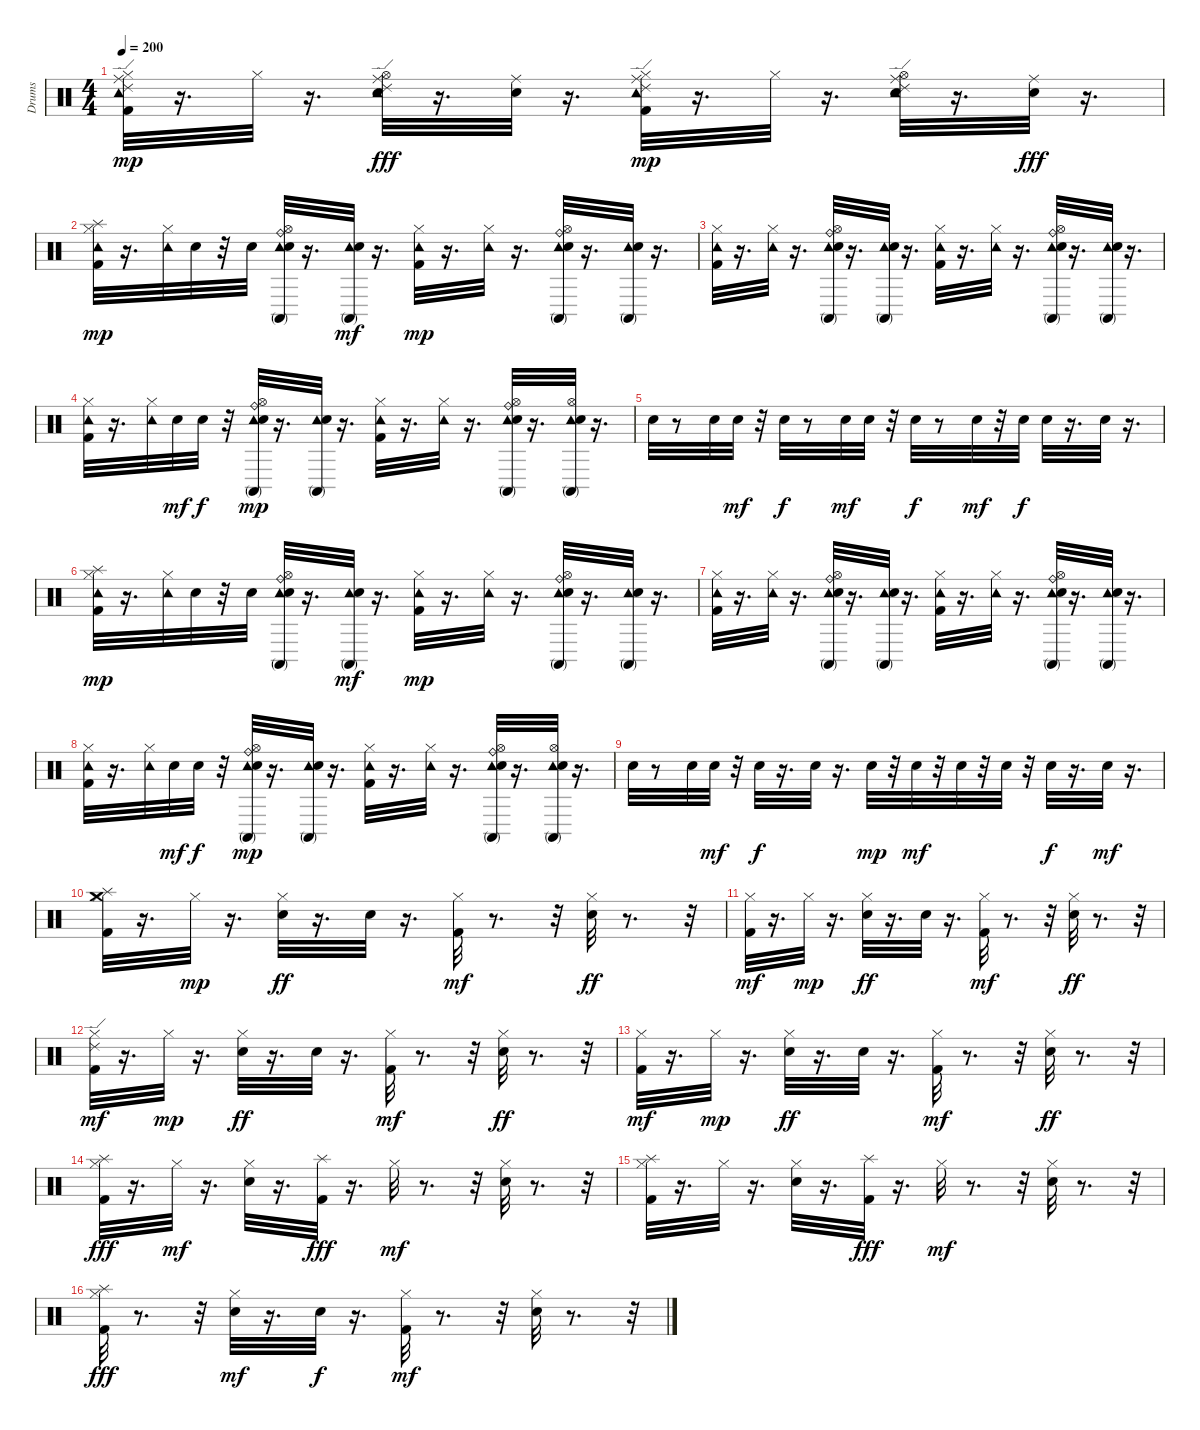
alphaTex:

\track ("Drums" "Drums") {instrument percussion}
\staff {score}
\articulation defaults
\ts (4 4)
\tempo 200
\clef neutral
\ks c
("Ride (middle)" "Tambourine (hit)" "Hi-Hat (closed)" "Kick (hit) 2" "Ride (edge) 2").32{dy mp} r.16{d} "Hi-Hat (closed)".32 r.16{d} ("Ride (middle)" "Ride (edge) 2" "Hi-Hat (open)" "Electric Snare (hit)" "Tambourine (hit)").32{dy fff} r.16{d} ("Ride (middle)" "Electric Snare (hit)").32 r.16{d} ("Ride (middle)" "Tambourine (hit)" "Kick (hit) 2" "Hi-Hat (closed)" "Ride (edge) 2").32{dy mp} r.16{d} "Hi-Hat (closed)".32 r.16{d} ("Ride (middle)" "Tambourine (hit)" "Hi-Hat (open)" "Electric Snare (hit)" "Ride (edge) 2").32 r.16{d} ("Electric Snare (hit)" "Ride (middle)").32{dy fff} r.16{d} |
("Splash (hit)" "Kick (hit) 2" "Hi-Hat (closed)" "Tambourine (hit)").32{dy mp} r.16{d} ("Tambourine (hit)" "Hi-Hat (closed)").32 "Electric Snare (hit)".32 r.32 "Electric Snare (hit)".32 ("Tambourine (hit)" "Hi-Hat (open)" "Ride (bell)" "Electric Snare (hit)" "Conga high (mute)").32 r.16{d} ("Tambourine (hit)" "Conga high (mute)" "Electric Snare (hit)").32{dy mf} r.16{d} ("Tambourine (hit)" "Hi-Hat (closed)" "Kick (hit) 2").32{dy mp} r.16{d} ("Tambourine (hit)" "Hi-Hat (closed)").32 r.16{d} ("Tambourine (hit)" "Ride (bell)" "Hi-Hat (open)" "Conga high (mute)" "Electric Snare (hit)").32 r.16{d} ("Tambourine (hit)" "Conga high (mute)" "Electric Snare (hit)").32 r.16{d} |
("Tambourine (hit)" "Hi-Hat (closed)" "Kick (hit) 2").32 r.16{d} ("Tambourine (hit)" "Hi-Hat (closed)").32 r.16{d} ("Tambourine (hit)" "Ride (bell)" "Hi-Hat (open)" "Conga high (mute)" "Electric Snare (hit)").32 r.16{d} ("Tambourine (hit)" "Conga high (mute)" "Electric Snare (hit)").32 r.16{d} ("Tambourine (hit)" "Hi-Hat (closed)" "Kick (hit) 2").32 r.16{d} ("Tambourine (hit)" "Hi-Hat (closed)").32 r.16{d} ("Tambourine (hit)" "Ride (bell)" "Hi-Hat (open)" "Conga high (mute)" "Electric Snare (hit)").32 r.16{d} ("Tambourine (hit)" "Conga high (mute)" "Electric Snare (hit)").32 r.16{d} |
("Tambourine (hit)" "Hi-Hat (closed)" "Kick (hit) 2").32 r.16{d} ("Tambourine (hit)" "Hi-Hat (closed)").32 "Electric Snare (hit)".32{dy mf} "Electric Snare (hit)".32{dy f} r.32 ("Tambourine (hit)" "Hi-Hat (open)" "Ride (bell)" "Conga high (mute)" "Electric Snare (hit)").32{dy mp} r.16{d} ("Tambourine (hit)" "Conga high (mute)" "Electric Snare (hit)").32 r.16{d} ("Tambourine (hit)" "Hi-Hat (closed)" "Kick (hit) 2").32 r.16{d} ("Tambourine (hit)" "Hi-Hat (closed)").32 r.16{d} ("Tambourine (hit)" "Hi-Hat (open)" "Ride (bell)" "Conga high (mute)" "Electric Snare (hit)").32 r.16{d} ("Tambourine (hit)" "Conga high (mute)" "Electric Snare (hit)" "Hi-Hat (open)").32 r.16{d} |
"Electric Snare (hit)".32 r.8 "Electric Snare (hit)".32 "Electric Snare (hit)".32{dy mf} r.32 "Electric Snare (hit)".32{dy f} r.8 "Electric Snare (hit)".32{dy mf} "Electric Snare (hit)".32 r.32 "Electric Snare (hit)".32{dy f} r.8 "Electric Snare (hit)".32{dy mf} r.32 "Electric Snare (hit)".32{dy f} "Electric Snare (hit)".32 r.16{d} "Electric Snare (hit)".32 r.16{d} |
("Splash (hit)" "Kick (hit) 2" "Hi-Hat (closed)" "Tambourine (hit)").32{dy mp} r.16{d} ("Tambourine (hit)" "Hi-Hat (closed)").32 "Electric Snare (hit)".32 r.32 "Electric Snare (hit)".32 ("Tambourine (hit)" "Hi-Hat (open)" "Ride (bell)" "Electric Snare (hit)" "Conga high (mute)").32 r.16{d} ("Tambourine (hit)" "Conga high (mute)" "Electric Snare (hit)").32{dy mf} r.16{d} ("Tambourine (hit)" "Hi-Hat (closed)" "Kick (hit) 2").32{dy mp} r.16{d} ("Tambourine (hit)" "Hi-Hat (closed)").32 r.16{d} ("Tambourine (hit)" "Ride (bell)" "Hi-Hat (open)" "Conga high (mute)" "Electric Snare (hit)").32 r.16{d} ("Tambourine (hit)" "Conga high (mute)" "Electric Snare (hit)").32 r.16{d} |
("Tambourine (hit)" "Hi-Hat (closed)" "Kick (hit) 2").32 r.16{d} ("Tambourine (hit)" "Hi-Hat (closed)").32 r.16{d} ("Tambourine (hit)" "Ride (bell)" "Hi-Hat (open)" "Conga high (mute)" "Electric Snare (hit)").32 r.16{d} ("Tambourine (hit)" "Conga high (mute)" "Electric Snare (hit)").32 r.16{d} ("Tambourine (hit)" "Hi-Hat (closed)" "Kick (hit) 2").32 r.16{d} ("Tambourine (hit)" "Hi-Hat (closed)").32 r.16{d} ("Tambourine (hit)" "Ride (bell)" "Hi-Hat (open)" "Conga high (mute)" "Electric Snare (hit)").32 r.16{d} ("Tambourine (hit)" "Conga high (mute)" "Electric Snare (hit)").32 r.16{d} |
("Tambourine (hit)" "Hi-Hat (closed)" "Kick (hit) 2").32 r.16{d} ("Tambourine (hit)" "Hi-Hat (closed)").32 "Electric Snare (hit)".32{dy mf} "Electric Snare (hit)".32{dy f} r.32 ("Tambourine (hit)" "Hi-Hat (open)" "Ride (bell)" "Conga high (mute)" "Electric Snare (hit)").32{dy mp} r.16{d} ("Tambourine (hit)" "Conga high (mute)" "Electric Snare (hit)").32 r.16{d} ("Tambourine (hit)" "Hi-Hat (closed)" "Kick (hit) 2").32 r.16{d} ("Tambourine (hit)" "Hi-Hat (closed)").32 r.16{d} ("Tambourine (hit)" "Hi-Hat (open)" "Ride (bell)" "Conga high (mute)" "Electric Snare (hit)").32 r.16{d} ("Tambourine (hit)" "Conga high (mute)" "Electric Snare (hit)" "Hi-Hat (open)").32 r.16{d} |
"Electric Snare (hit)".32 r.8 "Electric Snare (hit)".32 "Electric Snare (hit)".32{dy mf} r.32 "Electric Snare (hit)".32{dy f} r.16{d} "Electric Snare (hit)".32 r.16{d} "Electric Snare (hit)".32{dy mp} r.32 "Electric Snare (hit)".32{dy mf} r.32 "Electric Snare (hit)".32 r.32 "Electric Snare (hit)".32 r.32 "Electric Snare (hit)".32{dy f} r.16{d} "Electric Snare (hit)".32{dy mf} r.16{d} |
("Hi-Hat (closed)" "Splash (hit)" "Crash medium (hit)" "Kick (hit) 2").32 r.16{d} "Hi-Hat (closed)".32{dy mp} r.16{d} ("Hi-Hat (closed)" "Electric Snare (hit)").32{dy ff} r.16{d} "Electric Snare (hit)".32 r.16{d} ("Hi-Hat (closed)" "Kick (hit) 2").32{dy mf} r.8{d} r.32 ("Hi-Hat (closed)" "Electric Snare (hit)").32{dy ff} r.8{d} r.32 |
("Hi-Hat (closed)" "Kick (hit) 2").32{dy mf} r.16{d} "Hi-Hat (closed)".32{dy mp} r.16{d} ("Hi-Hat (closed)" "Electric Snare (hit)").32{dy ff} r.16{d} "Electric Snare (hit)".32 r.16{d} ("Hi-Hat (closed)" "Kick (hit) 2").32{dy mf} r.8{d} r.32 ("Hi-Hat (closed)" "Electric Snare (hit)").32{dy ff} r.8{d} r.32 |
("Ride (edge) 2" "Hi-Hat (closed)" "Kick (hit) 2").32{dy mf} r.16{d} "Hi-Hat (closed)".32{dy mp} r.16{d} ("Hi-Hat (closed)" "Electric Snare (hit)").32{dy ff} r.16{d} "Electric Snare (hit)".32 r.16{d} ("Hi-Hat (closed)" "Kick (hit) 2").32{dy mf} r.8{d} r.32 ("Hi-Hat (closed)" "Electric Snare (hit)").32{dy ff} r.8{d} r.32 |
("Hi-Hat (closed)" "Kick (hit) 2").32{dy mf} r.16{d} "Hi-Hat (closed)".32{dy mp} r.16{d} ("Hi-Hat (closed)" "Electric Snare (hit)").32{dy ff} r.16{d} "Electric Snare (hit)".32 r.16{d} ("Hi-Hat (closed)" "Kick (hit) 2").32{dy mf} r.8{d} r.32 ("Hi-Hat (closed)" "Electric Snare (hit)").32{dy ff} r.8{d} r.32 |
("Hi-Hat (closed)" "Kick (hit) 2" "Splash (hit)").32{dy fff} r.16{d} "Hi-Hat (closed)".32{dy mf} r.16{d} ("Hi-Hat (closed)" "Electric Snare (hit)").32 r.16{d} ("Splash (hit)" "Kick (hit) 2").32{dy fff} r.16{d} "Hi-Hat (closed)".32{dy mf} r.8{d} r.32 ("Hi-Hat (closed)" "Electric Snare (hit)").32 r.8{d} r.32 |
("Splash (hit)" "Hi-Hat (closed)" "Kick (hit) 2").32 r.16{d} "Hi-Hat (closed)".32 r.16{d} ("Hi-Hat (closed)" "Electric Snare (hit)").32 r.16{d} ("Splash (hit)" "Kick (hit) 2").32{dy fff} r.16{d} "Hi-Hat (closed)".32{dy mf} r.8{d} r.32 ("Hi-Hat (closed)" "Electric Snare (hit)").32 r.8{d} r.32 |
("Hi-Hat (closed)" "Splash (hit)" "Kick (hit) 2").32{dy fff} r.8{d} r.32 ("Hi-Hat (closed)" "Electric Snare (hit)").32{dy mf} r.16{d} "Electric Snare (hit)".32{dy f} r.16{d} ("Hi-Hat (closed)" "Kick (hit) 2").32{dy mf} r.8{d} r.32 ("Hi-Hat (closed)" "Electric Snare (hit)").32 r.8{d} r.32
